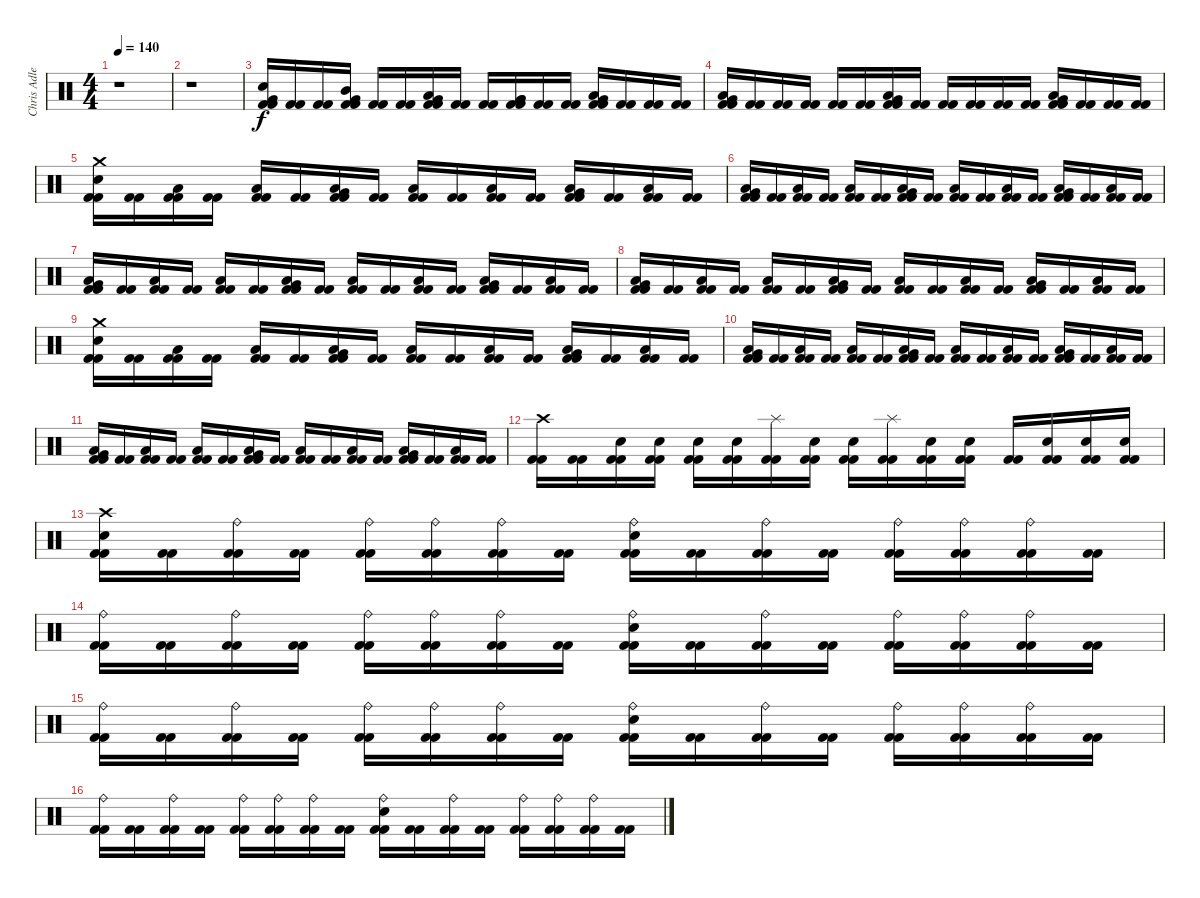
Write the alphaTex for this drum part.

\track ("Chris Adler" "Chris Adle") {instrument percussion}
\staff {score}
\articulation defaults
\ts (4 4)
\tempo 140
\clef neutral
\ks c
r.1{dy f} |
r.1 |
("Very Low Tom (hit)" "Electric Snare (hit)" "Kick (hit) 2" "Kick (hit) 2").16{volume 13} ("Kick (hit) 2" "Kick (hit) 2").16 ("Kick (hit) 2" "Kick (hit) 2").16 ("Mid Tom (hit)" "Very Low Tom (hit)" "Kick (hit) 2" "Kick (hit) 2").16 ("Kick (hit) 2" "Kick (hit) 2").16 ("Kick (hit) 2" "Kick (hit) 2").16 ("Low Tom (hit)" "Very Low Tom (hit)" "Kick (hit) 2" "Kick (hit) 2").16 ("Kick (hit) 2" "Kick (hit) 2").16 ("Kick (hit) 2" "Kick (hit) 2").16 ("Very Low Tom (hit)" "Very Low Tom (hit)" "Kick (hit) 2" "Kick (hit) 2").16 ("Kick (hit) 2" "Kick (hit) 2").16 ("Kick (hit) 2" "Kick (hit) 2").16 ("Very Low Tom (hit)" "Low Floor Tom (hit)" "Kick (hit) 2" "Kick (hit) 2").16 ("Kick (hit) 2" "Kick (hit) 2").16 ("Kick (hit) 2" "Kick (hit) 2").16 ("Kick (hit) 2" "Kick (hit) 2").16 |
("Very Low Tom (hit)" "Low Floor Tom (hit)" "Kick (hit) 2" "Kick (hit) 2").16 ("Kick (hit) 2" "Kick (hit) 2").16 ("Kick (hit) 2" "Kick (hit) 2").16 ("Kick (hit) 2" "Kick (hit) 2").16 ("Kick (hit) 2" "Kick (hit) 2").16 ("Kick (hit) 2" "Kick (hit) 2").16 ("Very Low Tom (hit)" "Low Floor Tom (hit)" "Kick (hit) 2" "Kick (hit) 2").16 ("Kick (hit) 2" "Kick (hit) 2").16 ("Kick (hit) 2" "Kick (hit) 2").16 ("Kick (hit) 2" "Kick (hit) 2").16 ("Kick (hit) 2" "Kick (hit) 2").16 ("Kick (hit) 2" "Kick (hit) 2").16 ("Very Low Tom (hit)" "Low Floor Tom (hit)" "Kick (hit) 2" "Kick (hit) 2").16 ("Kick (hit) 2" "Kick (hit) 2").16 ("Kick (hit) 2" "Kick (hit) 2").16 ("Kick (hit) 2" "Kick (hit) 2").16 |
("Crash medium (hit)" "Electric Snare (hit)" "Kick (hit) 2" "Kick (hit) 2").16 ("Kick (hit) 2" "Kick (hit) 2").16 ("Low Floor Tom (hit)" "Kick (hit) 2" "Kick (hit) 2").16 ("Kick (hit) 2" "Kick (hit) 2").16 ("Low Floor Tom (hit)" "Kick (hit) 2" "Kick (hit) 2").16 ("Kick (hit) 2" "Kick (hit) 2").16 ("Very Low Tom (hit)" "Low Floor Tom (hit)" "Kick (hit) 2" "Kick (hit) 2").16 ("Kick (hit) 2" "Kick (hit) 2").16 ("Low Floor Tom (hit)" "Kick (hit) 2" "Kick (hit) 2").16 ("Kick (hit) 2" "Kick (hit) 2").16 ("Low Floor Tom (hit)" "Kick (hit) 2" "Kick (hit) 2").16 ("Kick (hit) 2" "Kick (hit) 2").16 ("Very Low Tom (hit)" "Low Floor Tom (hit)" "Kick (hit) 2" "Kick (hit) 2").16 ("Kick (hit) 2" "Kick (hit) 2").16 ("Low Floor Tom (hit)" "Kick (hit) 2" "Kick (hit) 2").16 ("Kick (hit) 2" "Kick (hit) 2").16 |
("Very Low Tom (hit)" "Low Floor Tom (hit)" "Kick (hit) 2" "Kick (hit) 2").16 ("Kick (hit) 2" "Kick (hit) 2").16 ("Low Floor Tom (hit)" "Kick (hit) 2" "Kick (hit) 2").16 ("Kick (hit) 2" "Kick (hit) 2").16 ("Low Floor Tom (hit)" "Kick (hit) 2" "Kick (hit) 2").16 ("Kick (hit) 2" "Kick (hit) 2").16 ("Very Low Tom (hit)" "Low Floor Tom (hit)" "Kick (hit) 2" "Kick (hit) 2").16 ("Kick (hit) 2" "Kick (hit) 2").16 ("Low Floor Tom (hit)" "Kick (hit) 2" "Kick (hit) 2").16 ("Kick (hit) 2" "Kick (hit) 2").16 ("Low Floor Tom (hit)" "Kick (hit) 2" "Kick (hit) 2").16 ("Kick (hit) 2" "Kick (hit) 2").16 ("Very Low Tom (hit)" "Low Floor Tom (hit)" "Kick (hit) 2" "Kick (hit) 2").16 ("Kick (hit) 2" "Kick (hit) 2").16 ("Low Floor Tom (hit)" "Kick (hit) 2" "Kick (hit) 2").16 ("Kick (hit) 2" "Kick (hit) 2").16 |
("Very Low Tom (hit)" "Low Floor Tom (hit)" "Kick (hit) 2" "Kick (hit) 2").16 ("Kick (hit) 2" "Kick (hit) 2").16 ("Low Floor Tom (hit)" "Kick (hit) 2" "Kick (hit) 2").16 ("Kick (hit) 2" "Kick (hit) 2").16 ("Low Floor Tom (hit)" "Kick (hit) 2" "Kick (hit) 2").16 ("Kick (hit) 2" "Kick (hit) 2").16 ("Very Low Tom (hit)" "Low Floor Tom (hit)" "Kick (hit) 2" "Kick (hit) 2").16 ("Kick (hit) 2" "Kick (hit) 2").16 ("Low Floor Tom (hit)" "Kick (hit) 2" "Kick (hit) 2").16 ("Kick (hit) 2" "Kick (hit) 2").16 ("Low Floor Tom (hit)" "Kick (hit) 2" "Kick (hit) 2").16 ("Kick (hit) 2" "Kick (hit) 2").16 ("Very Low Tom (hit)" "Low Floor Tom (hit)" "Kick (hit) 2" "Kick (hit) 2").16 ("Kick (hit) 2" "Kick (hit) 2").16 ("Low Floor Tom (hit)" "Kick (hit) 2" "Kick (hit) 2").16 ("Kick (hit) 2" "Kick (hit) 2").16 |
("Very Low Tom (hit)" "Low Floor Tom (hit)" "Kick (hit) 2" "Kick (hit) 2").16 ("Kick (hit) 2" "Kick (hit) 2").16 ("Low Floor Tom (hit)" "Kick (hit) 2" "Kick (hit) 2").16 ("Kick (hit) 2" "Kick (hit) 2").16 ("Low Floor Tom (hit)" "Kick (hit) 2" "Kick (hit) 2").16 ("Kick (hit) 2" "Kick (hit) 2").16 ("Very Low Tom (hit)" "Low Floor Tom (hit)" "Kick (hit) 2" "Kick (hit) 2").16 ("Kick (hit) 2" "Kick (hit) 2").16 ("Low Floor Tom (hit)" "Kick (hit) 2" "Kick (hit) 2").16 ("Kick (hit) 2" "Kick (hit) 2").16 ("Low Floor Tom (hit)" "Kick (hit) 2" "Kick (hit) 2").16 ("Kick (hit) 2" "Kick (hit) 2").16 ("Very Low Tom (hit)" "Low Floor Tom (hit)" "Kick (hit) 2" "Kick (hit) 2").16 ("Kick (hit) 2" "Kick (hit) 2").16 ("Low Floor Tom (hit)" "Kick (hit) 2" "Kick (hit) 2").16 ("Kick (hit) 2" "Kick (hit) 2").16 |
("Crash medium (hit)" "Electric Snare (hit)" "Kick (hit) 2" "Kick (hit) 2").16 ("Kick (hit) 2" "Kick (hit) 2").16 ("Low Floor Tom (hit)" "Kick (hit) 2" "Kick (hit) 2").16 ("Kick (hit) 2" "Kick (hit) 2").16 ("Low Floor Tom (hit)" "Kick (hit) 2" "Kick (hit) 2").16 ("Kick (hit) 2" "Kick (hit) 2").16 ("Very Low Tom (hit)" "Low Floor Tom (hit)" "Kick (hit) 2" "Kick (hit) 2").16 ("Kick (hit) 2" "Kick (hit) 2").16 ("Low Floor Tom (hit)" "Kick (hit) 2" "Kick (hit) 2").16 ("Kick (hit) 2" "Kick (hit) 2").16 ("Low Floor Tom (hit)" "Kick (hit) 2" "Kick (hit) 2").16 ("Kick (hit) 2" "Kick (hit) 2").16 ("Very Low Tom (hit)" "Low Floor Tom (hit)" "Kick (hit) 2" "Kick (hit) 2").16 ("Kick (hit) 2" "Kick (hit) 2").16 ("Low Floor Tom (hit)" "Kick (hit) 2" "Kick (hit) 2").16 ("Kick (hit) 2" "Kick (hit) 2").16 |
("Very Low Tom (hit)" "Low Floor Tom (hit)" "Kick (hit) 2" "Kick (hit) 2").16 ("Kick (hit) 2" "Kick (hit) 2").16 ("Low Floor Tom (hit)" "Kick (hit) 2" "Kick (hit) 2").16 ("Kick (hit) 2" "Kick (hit) 2").16 ("Low Floor Tom (hit)" "Kick (hit) 2" "Kick (hit) 2").16 ("Kick (hit) 2" "Kick (hit) 2").16 ("Very Low Tom (hit)" "Low Floor Tom (hit)" "Kick (hit) 2" "Kick (hit) 2").16 ("Kick (hit) 2" "Kick (hit) 2").16 ("Low Floor Tom (hit)" "Kick (hit) 2" "Kick (hit) 2").16 ("Kick (hit) 2" "Kick (hit) 2").16 ("Low Floor Tom (hit)" "Kick (hit) 2" "Kick (hit) 2").16 ("Kick (hit) 2" "Kick (hit) 2").16 ("Very Low Tom (hit)" "Low Floor Tom (hit)" "Kick (hit) 2" "Kick (hit) 2").16 ("Kick (hit) 2" "Kick (hit) 2").16 ("Low Floor Tom (hit)" "Kick (hit) 2" "Kick (hit) 2").16 ("Kick (hit) 2" "Kick (hit) 2").16 |
("Very Low Tom (hit)" "Low Floor Tom (hit)" "Kick (hit) 2" "Kick (hit) 2").16 ("Kick (hit) 2" "Kick (hit) 2").16 ("Low Floor Tom (hit)" "Kick (hit) 2" "Kick (hit) 2").16 ("Kick (hit) 2" "Kick (hit) 2").16 ("Low Floor Tom (hit)" "Kick (hit) 2" "Kick (hit) 2").16 ("Kick (hit) 2" "Kick (hit) 2").16 ("Very Low Tom (hit)" "Low Floor Tom (hit)" "Kick (hit) 2" "Kick (hit) 2").16 ("Kick (hit) 2" "Kick (hit) 2").16 ("Low Floor Tom (hit)" "Kick (hit) 2" "Kick (hit) 2").16 ("Kick (hit) 2" "Kick (hit) 2").16 ("Low Floor Tom (hit)" "Kick (hit) 2" "Kick (hit) 2").16 ("Kick (hit) 2" "Kick (hit) 2").16 ("Very Low Tom (hit)" "Low Floor Tom (hit)" "Kick (hit) 2" "Kick (hit) 2").16 ("Kick (hit) 2" "Kick (hit) 2").16 ("Low Floor Tom (hit)" "Kick (hit) 2" "Kick (hit) 2").16 ("Kick (hit) 2" "Kick (hit) 2").16 |
("Crash high (hit)" "Kick (hit) 2" "Kick (hit) 2").16 ("Kick (hit) 2" "Kick (hit) 2").16 ("Electric Snare (hit)" "Kick (hit) 2" "Kick (hit) 2").16 ("Electric Snare (hit)" "Kick (hit) 2" "Kick (hit) 2").16 ("Electric Snare (hit)" "Kick (hit) 2" "Kick (hit) 2").16 ("Electric Snare (hit)" "Kick (hit) 2" "Kick (hit) 2").16 ("Splash (hit)" "Kick (hit) 2" "Kick (hit) 2").16 ("Electric Snare (hit)" "Kick (hit) 2" "Kick (hit) 2").16 ("Electric Snare (hit)" "Kick (hit) 2" "Kick (hit) 2").16 ("Splash (hit)" "Kick (hit) 2" "Kick (hit) 2").16 ("Electric Snare (hit)" "Kick (hit) 2" "Kick (hit) 2").16 ("Electric Snare (hit)" "Kick (hit) 2" "Kick (hit) 2").16 ("Kick (hit) 2" "Kick (hit) 2").16 ("Electric Snare (hit)" "Kick (hit) 2" "Kick (hit) 2").16 ("Electric Snare (hit)" "Kick (hit) 2" "Kick (hit) 2").16 ("Electric Snare (hit)" "Kick (hit) 2" "Kick (hit) 2").16 |
("Crash high (hit)" "Electric Snare (hit)" "Kick (hit) 2" "Kick (hit) 2").16 ("Kick (hit) 2" "Kick (hit) 2").16 ("Ride (bell)" "Kick (hit) 2" "Kick (hit) 2").16 ("Kick (hit) 2" "Kick (hit) 2").16 ("Ride (bell)" "Kick (hit) 2" "Kick (hit) 2").16 ("Ride (bell)" "Kick (hit) 2" "Kick (hit) 2").16 ("Ride (bell)" "Kick (hit) 2" "Kick (hit) 2").16 ("Kick (hit) 2" "Kick (hit) 2").16 ("Ride (bell)" "Electric Snare (hit)" "Kick (hit) 2" "Kick (hit) 2").16 ("Kick (hit) 2" "Kick (hit) 2").16 ("Ride (bell)" "Kick (hit) 2" "Kick (hit) 2").16 ("Kick (hit) 2" "Kick (hit) 2").16 ("Ride (bell)" "Kick (hit) 2" "Kick (hit) 2").16 ("Ride (bell)" "Kick (hit) 2" "Kick (hit) 2").16 ("Ride (bell)" "Kick (hit) 2" "Kick (hit) 2").16 ("Kick (hit) 2" "Kick (hit) 2").16 |
("Ride (bell)" "Kick (hit) 2" "Kick (hit) 2").16 ("Kick (hit) 2" "Kick (hit) 2").16 ("Ride (bell)" "Kick (hit) 2" "Kick (hit) 2").16 ("Kick (hit) 2" "Kick (hit) 2").16 ("Ride (bell)" "Kick (hit) 2" "Kick (hit) 2").16 ("Ride (bell)" "Kick (hit) 2" "Kick (hit) 2").16 ("Ride (bell)" "Kick (hit) 2" "Kick (hit) 2").16 ("Kick (hit) 2" "Kick (hit) 2").16 ("Ride (bell)" "Electric Snare (hit)" "Kick (hit) 2" "Kick (hit) 2").16 ("Kick (hit) 2" "Kick (hit) 2").16 ("Ride (bell)" "Kick (hit) 2" "Kick (hit) 2").16 ("Kick (hit) 2" "Kick (hit) 2").16 ("Ride (bell)" "Kick (hit) 2" "Kick (hit) 2").16 ("Ride (bell)" "Kick (hit) 2" "Kick (hit) 2").16 ("Ride (bell)" "Kick (hit) 2" "Kick (hit) 2").16 ("Kick (hit) 2" "Kick (hit) 2").16 |
("Ride (bell)" "Kick (hit) 2" "Kick (hit) 2").16 ("Kick (hit) 2" "Kick (hit) 2").16 ("Ride (bell)" "Kick (hit) 2" "Kick (hit) 2").16 ("Kick (hit) 2" "Kick (hit) 2").16 ("Ride (bell)" "Kick (hit) 2" "Kick (hit) 2").16 ("Ride (bell)" "Kick (hit) 2" "Kick (hit) 2").16 ("Ride (bell)" "Kick (hit) 2" "Kick (hit) 2").16 ("Kick (hit) 2" "Kick (hit) 2").16 ("Ride (bell)" "Electric Snare (hit)" "Kick (hit) 2" "Kick (hit) 2").16 ("Kick (hit) 2" "Kick (hit) 2").16 ("Ride (bell)" "Kick (hit) 2" "Kick (hit) 2").16 ("Kick (hit) 2" "Kick (hit) 2").16 ("Ride (bell)" "Kick (hit) 2" "Kick (hit) 2").16 ("Ride (bell)" "Kick (hit) 2" "Kick (hit) 2").16 ("Ride (bell)" "Kick (hit) 2" "Kick (hit) 2").16 ("Kick (hit) 2" "Kick (hit) 2").16 |
("Ride (bell)" "Kick (hit) 2" "Kick (hit) 2").16 ("Kick (hit) 2" "Kick (hit) 2").16 ("Ride (bell)" "Kick (hit) 2" "Kick (hit) 2").16 ("Kick (hit) 2" "Kick (hit) 2").16 ("Ride (bell)" "Kick (hit) 2" "Kick (hit) 2").16 ("Ride (bell)" "Kick (hit) 2" "Kick (hit) 2").16 ("Ride (bell)" "Kick (hit) 2" "Kick (hit) 2").16 ("Kick (hit) 2" "Kick (hit) 2").16 ("Ride (bell)" "Electric Snare (hit)" "Kick (hit) 2" "Kick (hit) 2").16 ("Kick (hit) 2" "Kick (hit) 2").16 ("Ride (bell)" "Kick (hit) 2" "Kick (hit) 2").16 ("Kick (hit) 2" "Kick (hit) 2").16 ("Ride (bell)" "Kick (hit) 2" "Kick (hit) 2").16 ("Ride (bell)" "Kick (hit) 2" "Kick (hit) 2").16 ("Ride (bell)" "Kick (hit) 2" "Kick (hit) 2").16 ("Kick (hit) 2" "Kick (hit) 2").16
